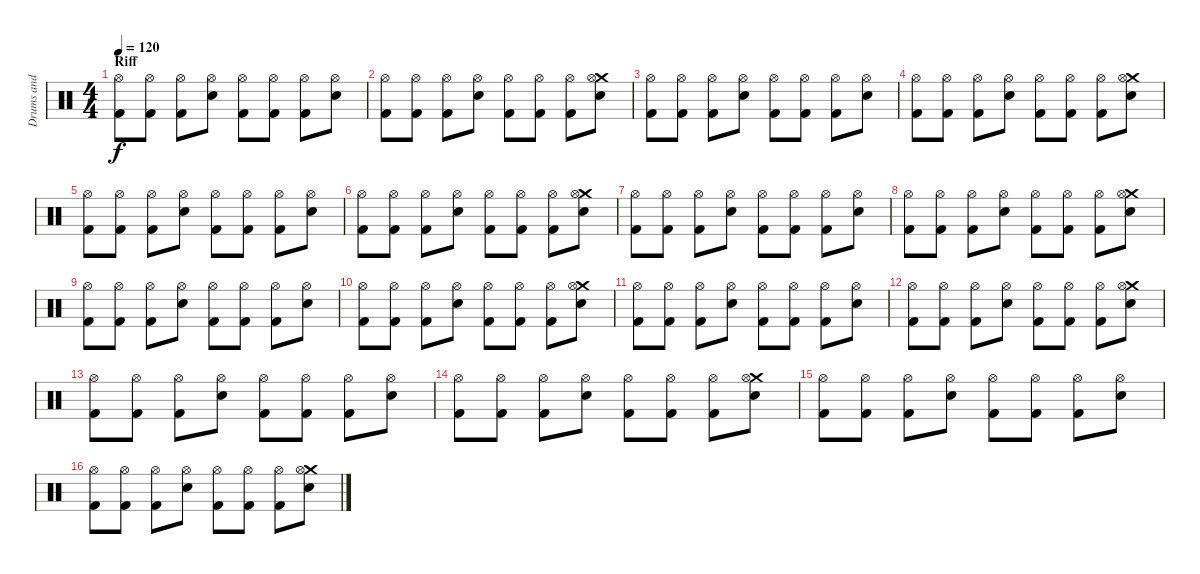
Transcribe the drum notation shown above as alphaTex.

\track ("Drums and Percussion" "Drums and ") {instrument percussion}
\staff {score}
\articulation defaults
\ts (4 4)
\section ("" "Riff")
\tempo 120
\clef neutral
\ks c
("Hi-Hat (open)" "Kick (hit) 2").8{dy f} ("Hi-Hat (open)" "Kick (hit) 2").8 ("Hi-Hat (open)" "Kick (hit) 2").8 ("Hi-Hat (open)" "Electric Snare (hit)").8 ("Hi-Hat (open)" "Kick (hit) 2").8 ("Hi-Hat (open)" "Kick (hit) 2").8 ("Hi-Hat (open)" "Kick (hit) 2").8 ("Hi-Hat (open)" "Electric Snare (hit)").8 |
("Hi-Hat (open)" "Kick (hit) 2").8 ("Hi-Hat (open)" "Kick (hit) 2").8 ("Hi-Hat (open)" "Kick (hit) 2").8 ("Hi-Hat (open)" "Electric Snare (hit)").8 ("Hi-Hat (open)" "Kick (hit) 2").8 ("Hi-Hat (open)" "Kick (hit) 2").8 ("Hi-Hat (open)" "Kick (hit) 2").8 ("Crash medium (hit)" "Hi-Hat (open)" "Electric Snare (hit)").8 |
("Hi-Hat (open)" "Kick (hit) 2").8 ("Hi-Hat (open)" "Kick (hit) 2").8 ("Hi-Hat (open)" "Kick (hit) 2").8 ("Hi-Hat (open)" "Electric Snare (hit)").8 ("Hi-Hat (open)" "Kick (hit) 2").8 ("Hi-Hat (open)" "Kick (hit) 2").8 ("Hi-Hat (open)" "Kick (hit) 2").8 ("Hi-Hat (open)" "Electric Snare (hit)").8 |
("Hi-Hat (open)" "Kick (hit) 2").8 ("Hi-Hat (open)" "Kick (hit) 2").8 ("Hi-Hat (open)" "Kick (hit) 2").8 ("Hi-Hat (open)" "Electric Snare (hit)").8 ("Hi-Hat (open)" "Kick (hit) 2").8 ("Hi-Hat (open)" "Kick (hit) 2").8 ("Hi-Hat (open)" "Kick (hit) 2").8 ("Crash medium (hit)" "Hi-Hat (open)" "Electric Snare (hit)").8 |
("Hi-Hat (open)" "Kick (hit) 2").8 ("Hi-Hat (open)" "Kick (hit) 2").8 ("Hi-Hat (open)" "Kick (hit) 2").8 ("Hi-Hat (open)" "Electric Snare (hit)").8 ("Hi-Hat (open)" "Kick (hit) 2").8 ("Hi-Hat (open)" "Kick (hit) 2").8 ("Hi-Hat (open)" "Kick (hit) 2").8 ("Hi-Hat (open)" "Electric Snare (hit)").8 |
("Hi-Hat (open)" "Kick (hit) 2").8 ("Hi-Hat (open)" "Kick (hit) 2").8 ("Hi-Hat (open)" "Kick (hit) 2").8 ("Hi-Hat (open)" "Electric Snare (hit)").8 ("Hi-Hat (open)" "Kick (hit) 2").8 ("Hi-Hat (open)" "Kick (hit) 2").8 ("Hi-Hat (open)" "Kick (hit) 2").8 ("Crash medium (hit)" "Hi-Hat (open)" "Electric Snare (hit)").8 |
("Hi-Hat (open)" "Kick (hit) 2").8 ("Hi-Hat (open)" "Kick (hit) 2").8 ("Hi-Hat (open)" "Kick (hit) 2").8 ("Hi-Hat (open)" "Electric Snare (hit)").8 ("Hi-Hat (open)" "Kick (hit) 2").8 ("Hi-Hat (open)" "Kick (hit) 2").8 ("Hi-Hat (open)" "Kick (hit) 2").8 ("Hi-Hat (open)" "Electric Snare (hit)").8 |
("Hi-Hat (open)" "Kick (hit) 2").8 ("Hi-Hat (open)" "Kick (hit) 2").8 ("Hi-Hat (open)" "Kick (hit) 2").8 ("Hi-Hat (open)" "Electric Snare (hit)").8 ("Hi-Hat (open)" "Kick (hit) 2").8 ("Hi-Hat (open)" "Kick (hit) 2").8 ("Hi-Hat (open)" "Kick (hit) 2").8 ("Crash medium (hit)" "Hi-Hat (open)" "Electric Snare (hit)").8 |
("Hi-Hat (open)" "Kick (hit) 2").8 ("Hi-Hat (open)" "Kick (hit) 2").8 ("Hi-Hat (open)" "Kick (hit) 2").8 ("Hi-Hat (open)" "Electric Snare (hit)").8 ("Hi-Hat (open)" "Kick (hit) 2").8 ("Hi-Hat (open)" "Kick (hit) 2").8 ("Hi-Hat (open)" "Kick (hit) 2").8 ("Hi-Hat (open)" "Electric Snare (hit)").8 |
("Hi-Hat (open)" "Kick (hit) 2").8 ("Hi-Hat (open)" "Kick (hit) 2").8 ("Hi-Hat (open)" "Kick (hit) 2").8 ("Hi-Hat (open)" "Electric Snare (hit)").8 ("Hi-Hat (open)" "Kick (hit) 2").8 ("Hi-Hat (open)" "Kick (hit) 2").8 ("Hi-Hat (open)" "Kick (hit) 2").8 ("Crash medium (hit)" "Hi-Hat (open)" "Electric Snare (hit)").8 |
("Hi-Hat (open)" "Kick (hit) 2").8 ("Hi-Hat (open)" "Kick (hit) 2").8 ("Hi-Hat (open)" "Kick (hit) 2").8 ("Hi-Hat (open)" "Electric Snare (hit)").8 ("Hi-Hat (open)" "Kick (hit) 2").8 ("Hi-Hat (open)" "Kick (hit) 2").8 ("Hi-Hat (open)" "Kick (hit) 2").8 ("Hi-Hat (open)" "Electric Snare (hit)").8 |
("Hi-Hat (open)" "Kick (hit) 2").8 ("Hi-Hat (open)" "Kick (hit) 2").8 ("Hi-Hat (open)" "Kick (hit) 2").8 ("Hi-Hat (open)" "Electric Snare (hit)").8 ("Hi-Hat (open)" "Kick (hit) 2").8 ("Hi-Hat (open)" "Kick (hit) 2").8 ("Hi-Hat (open)" "Kick (hit) 2").8 ("Crash medium (hit)" "Hi-Hat (open)" "Electric Snare (hit)").8 |
("Hi-Hat (open)" "Kick (hit) 2").8 ("Hi-Hat (open)" "Kick (hit) 2").8 ("Hi-Hat (open)" "Kick (hit) 2").8 ("Hi-Hat (open)" "Electric Snare (hit)").8 ("Hi-Hat (open)" "Kick (hit) 2").8 ("Hi-Hat (open)" "Kick (hit) 2").8 ("Hi-Hat (open)" "Kick (hit) 2").8 ("Hi-Hat (open)" "Electric Snare (hit)").8 |
("Hi-Hat (open)" "Kick (hit) 2").8 ("Hi-Hat (open)" "Kick (hit) 2").8 ("Hi-Hat (open)" "Kick (hit) 2").8 ("Hi-Hat (open)" "Electric Snare (hit)").8 ("Hi-Hat (open)" "Kick (hit) 2").8 ("Hi-Hat (open)" "Kick (hit) 2").8 ("Hi-Hat (open)" "Kick (hit) 2").8 ("Crash medium (hit)" "Hi-Hat (open)" "Electric Snare (hit)").8 |
("Hi-Hat (open)" "Kick (hit) 2").8 ("Hi-Hat (open)" "Kick (hit) 2").8 ("Hi-Hat (open)" "Kick (hit) 2").8 ("Hi-Hat (open)" "Electric Snare (hit)").8 ("Hi-Hat (open)" "Kick (hit) 2").8 ("Hi-Hat (open)" "Kick (hit) 2").8 ("Hi-Hat (open)" "Kick (hit) 2").8 ("Hi-Hat (open)" "Electric Snare (hit)").8 |
("Hi-Hat (open)" "Kick (hit) 2").8 ("Hi-Hat (open)" "Kick (hit) 2").8 ("Hi-Hat (open)" "Kick (hit) 2").8 ("Hi-Hat (open)" "Electric Snare (hit)").8 ("Hi-Hat (open)" "Kick (hit) 2").8 ("Hi-Hat (open)" "Kick (hit) 2").8 ("Hi-Hat (open)" "Kick (hit) 2").8 ("Crash medium (hit)" "Hi-Hat (open)" "Electric Snare (hit)").8
